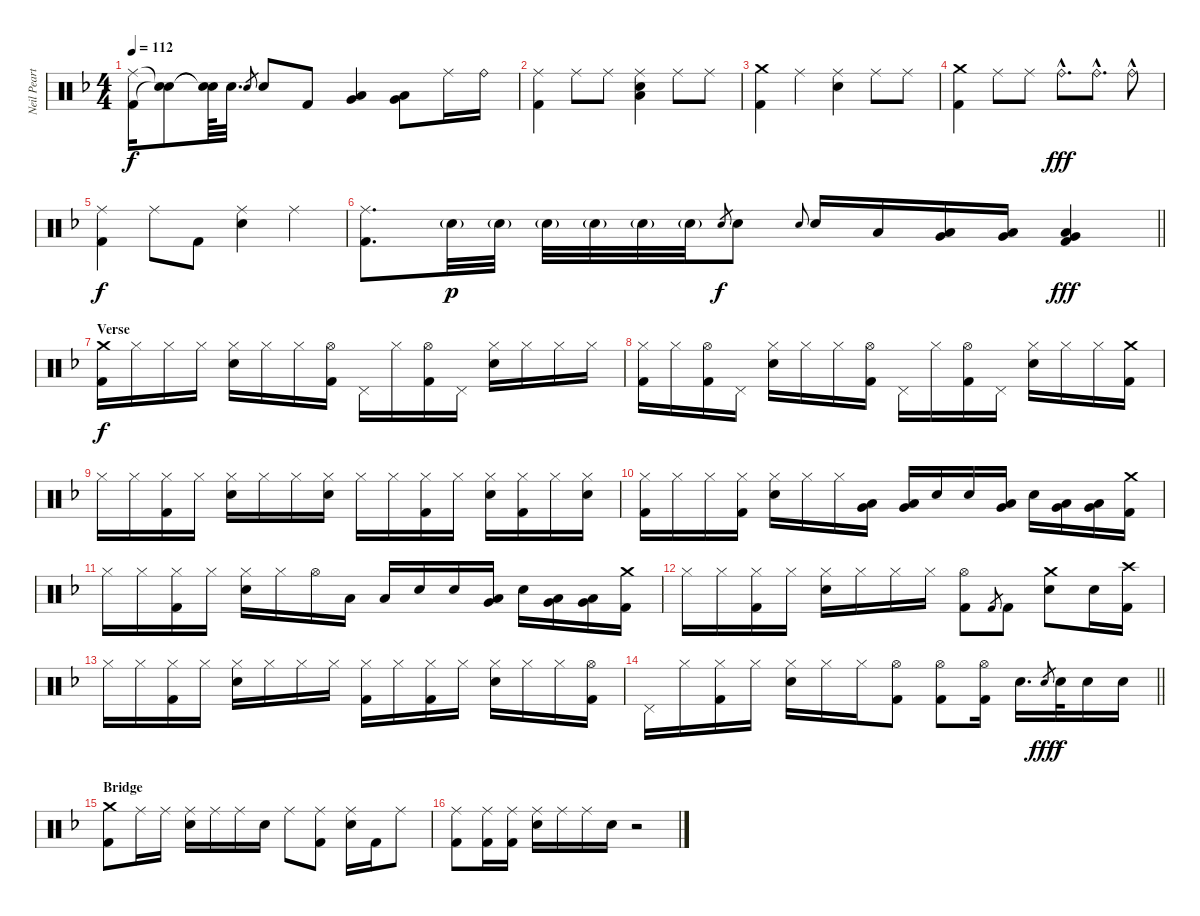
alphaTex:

\track ("Neil Peart" "Neil Peart") {instrument percussion}
\staff {score}
\articulation defaults
\ts (4 4)
\tempo 112
\clef neutral
\ks dminor
("Ride (middle)" "Kick (hit) 2").16{dy f} ("Snare (hit)"{t} "Snare (hit)"{t}).8 ("Snare (hit)"{t} "Snare (hit)"{t}).64 "Electric Snare (hit)".32{d} "Electric Snare (hit)".8{gr} "Electric Snare (hit)".8 "Kick (hit) 2".8 ("Low Tom (hit)" "Very Low Tom (hit)").4 ("Low Floor Tom (hit)" "Very Low Tom (hit)").8 "Ride (middle)".16 "Ride (bell)".16 |
("Ride (middle)" "Kick (hit) 2").4 "Ride (middle)".8 "Ride (middle)".8 ("Ride (middle)" "Electric Snare (hit)" "Low Floor Tom (hit)").4 "Ride (middle)".8 "Ride (middle)".8 |
("Crash medium (hit)" "Kick (hit) 2").4 "Ride (middle)".4 ("Ride (middle)" "Electric Snare (hit)").4 "Ride (middle)".8 "Ride (middle)".8 |
("Crash medium (hit)" "Kick (hit) 2").4 "Ride (middle)".8 "Ride (middle)".8 "Ride (bell)"{hac}.8{d dy fff} "Ride (bell)"{hac}.8{d} "Ride (bell)"{hac}.8 |
("Ride (middle)" "Kick (hit) 2").4{dy f} "Ride (middle)".8 "Kick (hit) 2".8 ("Ride (middle)" "Electric Snare (hit)").4 "Ride (middle)".4 |
\barLineRight lightlight
("Ride (middle)" "Kick (hit) 2").8{d} "Electric Snare (hit)"{g}.32{dy p} "Electric Snare (hit)"{g}.32 "Electric Snare (hit)"{g}.32 "Electric Snare (hit)"{g}.32 "Electric Snare (hit)"{g}.32 "Electric Snare (hit)"{g}.32 "Electric Snare (hit)".8{gr dy f} "Electric Snare (hit)".8 "Electric Snare (hit)".8{gr onbeat} "Electric Snare (hit)".16 "Low Tom (hit)".16 ("Low Tom (hit)" "Very Low Tom (hit)").16 ("Very Low Tom (hit)" "Low Floor Tom (hit)").16 ("Very Low Tom (hit)" "Low Floor Tom (hit)" "Kick (hit) 2").4{dy fff} |
\section ("" "Verse")
("Crash medium (hit)" "Kick (hit) 2").16{dy f} "Hi-Hat (closed)".16 "Hi-Hat (closed)".16 "Hi-Hat (closed)".16 ("Hi-Hat (closed)" "Electric Snare (hit)").16 "Hi-Hat (closed)".16 "Hi-Hat (closed)".16 ("Hi-Hat (open)" "Kick (hit) 2").16 "Pedal Hi-Hat (hit)".16 "Hi-Hat (closed)".16 ("Hi-Hat (open)" "Kick (hit) 2").16 "Pedal Hi-Hat (hit)".16 ("Hi-Hat (closed)" "Electric Snare (hit)").16 "Hi-Hat (closed)".16 "Hi-Hat (closed)".16 "Hi-Hat (closed)".16 |
("Hi-Hat (closed)" "Kick (hit) 2").16 "Hi-Hat (closed)".16 ("Hi-Hat (open)" "Kick (hit) 2").16 "Pedal Hi-Hat (hit)".16 ("Hi-Hat (closed)" "Electric Snare (hit)").16 "Hi-Hat (closed)".16 "Hi-Hat (closed)".16 ("Hi-Hat (open)" "Kick (hit) 2").16 "Pedal Hi-Hat (hit)".16 "Hi-Hat (closed)".16 ("Hi-Hat (open)" "Kick (hit) 2").16 "Pedal Hi-Hat (hit)".16 ("Hi-Hat (closed)" "Electric Snare (hit)").16 "Hi-Hat (closed)".16 "Hi-Hat (closed)".16 ("Crash medium (hit)" "Kick (hit) 2").16 |
"Hi-Hat (closed)".16 "Hi-Hat (closed)".16 ("Hi-Hat (closed)" "Kick (hit) 2").16 "Hi-Hat (closed)".16 ("Hi-Hat (closed)" "Electric Snare (hit)").16 "Hi-Hat (closed)".16 "Hi-Hat (closed)".16 ("Hi-Hat (closed)" "Electric Snare (hit)").16 "Hi-Hat (closed)".16 "Hi-Hat (closed)".16 ("Hi-Hat (closed)" "Kick (hit) 2").16 "Hi-Hat (closed)".16 ("Hi-Hat (closed)" "Electric Snare (hit)").16 ("Hi-Hat (closed)" "Kick (hit) 2").16 "Hi-Hat (closed)".16 ("Hi-Hat (closed)" "Electric Snare (hit)").16 |
("Hi-Hat (closed)" "Kick (hit) 2").16 "Hi-Hat (closed)".16 "Hi-Hat (closed)".16 ("Hi-Hat (closed)" "Kick (hit) 2").16 ("Hi-Hat (closed)" "Electric Snare (hit)").16 "Hi-Hat (closed)".16 "Hi-Hat (closed)".16 ("Low Tom (hit)" "Very Low Tom (hit)").16 ("Low Tom (hit)" "Very Low Tom (hit)").16 "Electric Snare (hit)".16 "Electric Snare (hit)".16 ("Low Tom (hit)" "Very Low Tom (hit)").16 "Electric Snare (hit)".16 ("Low Tom (hit)" "Very Low Tom (hit)").16 ("Very Low Tom (hit)" "Low Floor Tom (hit)").16 ("Crash medium (hit)" "Kick (hit) 2").16 |
"Hi-Hat (closed)".16 "Hi-Hat (closed)".16 ("Hi-Hat (closed)" "Kick (hit) 2").16 "Hi-Hat (closed)".16 ("Hi-Hat (closed)" "Electric Snare (hit)").16 "Hi-Hat (closed)".16 "Hi-Hat (open)".16 "Low Tom (hit)".16 "Low Tom (hit)".16 "Electric Snare (hit)".16 "Electric Snare (hit)".16 ("Low Tom (hit)" "Very Low Tom (hit)").16 "Electric Snare (hit)".16 ("Low Tom (hit)" "Very Low Tom (hit)").16 ("Very Low Tom (hit)" "Low Floor Tom (hit)").16 ("Crash medium (hit)" "Kick (hit) 2").16 |
"Hi-Hat (closed)".16 "Hi-Hat (closed)".16 ("Hi-Hat (closed)" "Kick (hit) 2").16 "Hi-Hat (closed)".16 ("Hi-Hat (closed)" "Electric Snare (hit)").16 "Hi-Hat (closed)".16 "Hi-Hat (closed)".16 "Hi-Hat (closed)".16 ("Hi-Hat (open)" "Kick (hit) 2").8 "Kick (hit) 2".8{gr} "Kick (hit) 2".8 ("Crash medium (hit)" "Electric Snare (hit)").8 "Electric Snare (hit)".16 ("Crash high (hit)" "Kick (hit) 2").16 |
"Hi-Hat (closed)".16 "Hi-Hat (closed)".16 ("Hi-Hat (closed)" "Kick (hit) 2").16 "Hi-Hat (closed)".16 ("Hi-Hat (closed)" "Electric Snare (hit)").16 "Hi-Hat (closed)".16 "Hi-Hat (closed)".16 "Hi-Hat (closed)".16 ("Hi-Hat (closed)" "Kick (hit) 2").16 "Hi-Hat (closed)".16 ("Hi-Hat (closed)" "Kick (hit) 2").16 "Hi-Hat (closed)".16 ("Hi-Hat (closed)" "Electric Snare (hit)").16 "Hi-Hat (closed)".16 "Hi-Hat (closed)".16 ("Hi-Hat (open)" "Kick (hit) 2").16 |
\barLineRight lightlight "Pedal Hi-Hat (hit)".16 "Hi-Hat (closed)".16
("Hi-Hat (closed)" "Kick (hit) 2").16 "Hi-Hat (closed)".16 ("Hi-Hat (closed)" "Electric Snare (hit)").16 "Hi-Hat (closed)".16 "Hi-Hat (closed)".16 ("Hi-Hat (open)" "Kick (hit) 2").8 ("Hi-Hat (open)" "Kick (hit) 2").8 ("Hi-Hat (open)" "Kick (hit) 2").16 "Electric Snare (hit)".16{d} "Electric Snare (hit)".8{gr dy fff} "Electric Snare (hit)".32{dy f} "Electric Snare (hit)".16 "Electric Snare (hit)".16 |
\section ("" "Bridge")
("Crash medium (hit)" "Kick (hit) 2").8 "Ride (middle)".16 "Ride (middle)".16 ("Ride (middle)" "Electric Snare (hit)").16 "Ride (middle)".16 "Ride (middle)".16 "Electric Snare (hit)".16 "Ride (middle)".8 ("Ride (middle)" "Kick (hit) 2").8 ("Ride (middle)" "Electric Snare (hit)").16 "Kick (hit) 2".16 "Ride (middle)".8 |
("Ride (middle)" "Kick (hit) 2").8 ("Ride (middle)" "Kick (hit) 2").16 ("Ride (middle)" "Kick (hit) 2").16 ("Ride (middle)" "Electric Snare (hit)").16 "Ride (middle)".16 "Ride (middle)".16 "Electric Snare (hit)".16 r.2
